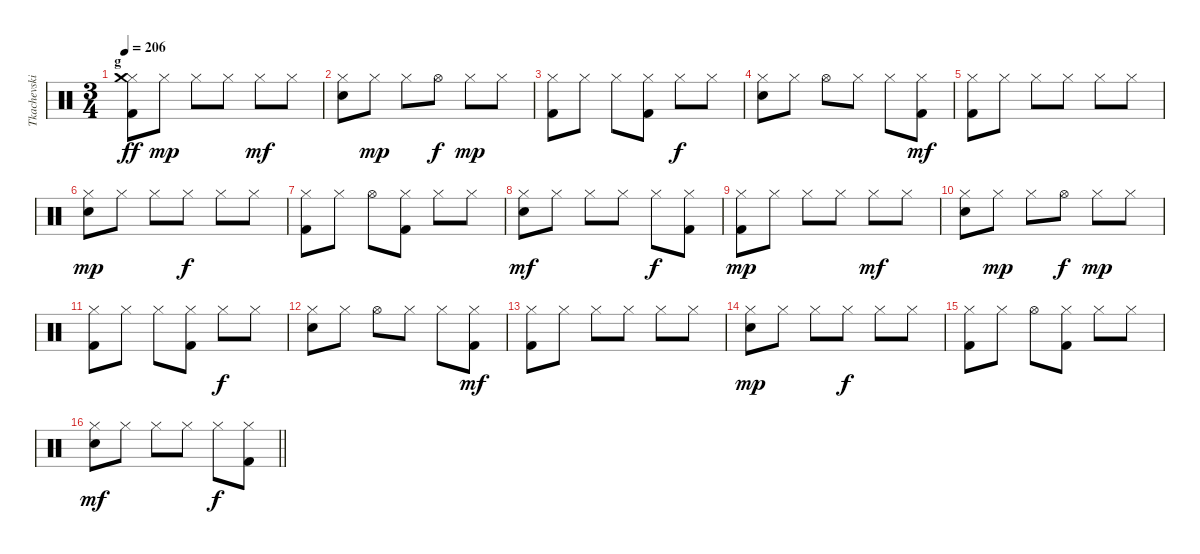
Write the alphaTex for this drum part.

\track ("Tkachevskiy A" "Tkachevski") {instrument percussion}
\staff {score}
\articulation defaults
\ts (3 4)
\section ("" "g")
\tempo 206
\clef neutral
\ks c
("Hi-Hat (closed)" "Crash medium (hit)" "Kick (hit) 2").8{dy ff} "Hi-Hat (closed)".8{dy mp} "Hi-Hat (closed)".8 "Hi-Hat (closed)".8 "Hi-Hat (closed)".8{dy mf} "Hi-Hat (closed)".8 |
("Hi-Hat (closed)" "Snare (hit) 2").8 "Hi-Hat (closed)".8{dy mp} "Hi-Hat (closed)".8 "Hi-Hat (open)".8{dy f} "Hi-Hat (closed)".8{dy mp} "Hi-Hat (closed)".8 |
("Hi-Hat (closed)" "Kick (hit) 2").8 "Hi-Hat (closed)".8 "Hi-Hat (closed)".8 ("Hi-Hat (closed)" "Kick (hit) 2").8 "Hi-Hat (closed)".8{dy f} "Hi-Hat (closed)".8 |
("Hi-Hat (closed)" "Snare (hit) 2").8 "Hi-Hat (closed)".8 "Hi-Hat (open)".8 "Hi-Hat (closed)".8 "Hi-Hat (closed)".8 ("Hi-Hat (closed)" "Kick (hit) 2").8{dy mf} |
("Hi-Hat (closed)" "Kick (hit) 2").8 "Hi-Hat (closed)".8 "Hi-Hat (closed)".8 "Hi-Hat (closed)".8 "Hi-Hat (closed)".8 "Hi-Hat (closed)".8 |
("Hi-Hat (closed)" "Snare (hit) 2").8{dy mp} "Hi-Hat (closed)".8 "Hi-Hat (closed)".8 "Hi-Hat (closed)".8{dy f} "Hi-Hat (closed)".8 "Hi-Hat (closed)".8 |
("Hi-Hat (closed)" "Kick (hit) 2").8 "Hi-Hat (closed)".8 "Hi-Hat (open)".8 ("Hi-Hat (closed)" "Kick (hit) 2").8 "Hi-Hat (closed)".8 "Hi-Hat (closed)".8 |
("Hi-Hat (closed)" "Snare (hit) 2").8{dy mf} "Hi-Hat (closed)".8 "Hi-Hat (closed)".8 "Hi-Hat (closed)".8 "Hi-Hat (closed)".8{dy f} ("Hi-Hat (closed)" "Kick (hit) 2").8 |
("Hi-Hat (closed)" "Kick (hit) 2").8{dy mp} "Hi-Hat (closed)".8 "Hi-Hat (closed)".8 "Hi-Hat (closed)".8 "Hi-Hat (closed)".8{dy mf} "Hi-Hat (closed)".8 |
("Hi-Hat (closed)" "Snare (hit) 2").8 "Hi-Hat (closed)".8{dy mp} "Hi-Hat (closed)".8 "Hi-Hat (open)".8{dy f} "Hi-Hat (closed)".8{dy mp} "Hi-Hat (closed)".8 |
("Hi-Hat (closed)" "Kick (hit) 2").8 "Hi-Hat (closed)".8 "Hi-Hat (closed)".8 ("Hi-Hat (closed)" "Kick (hit) 2").8 "Hi-Hat (closed)".8{dy f} "Hi-Hat (closed)".8 |
("Hi-Hat (closed)" "Snare (hit) 2").8 "Hi-Hat (closed)".8 "Hi-Hat (open)".8 "Hi-Hat (closed)".8 "Hi-Hat (closed)".8 ("Hi-Hat (closed)" "Kick (hit) 2").8{dy mf} |
("Hi-Hat (closed)" "Kick (hit) 2").8 "Hi-Hat (closed)".8 "Hi-Hat (closed)".8 "Hi-Hat (closed)".8 "Hi-Hat (closed)".8 "Hi-Hat (closed)".8 |
("Hi-Hat (closed)" "Snare (hit) 2").8{dy mp} "Hi-Hat (closed)".8 "Hi-Hat (closed)".8 "Hi-Hat (closed)".8{dy f} "Hi-Hat (closed)".8 "Hi-Hat (closed)".8 |
("Hi-Hat (closed)" "Kick (hit) 2").8 "Hi-Hat (closed)".8 "Hi-Hat (open)".8 ("Hi-Hat (closed)" "Kick (hit) 2").8 "Hi-Hat (closed)".8 "Hi-Hat (closed)".8 |
\barLineRight lightlight
("Hi-Hat (closed)" "Snare (hit) 2").8{dy mf} "Hi-Hat (closed)".8 "Hi-Hat (closed)".8 "Hi-Hat (closed)".8 "Hi-Hat (closed)".8{dy f} ("Hi-Hat (closed)" "Kick (hit) 2").8
